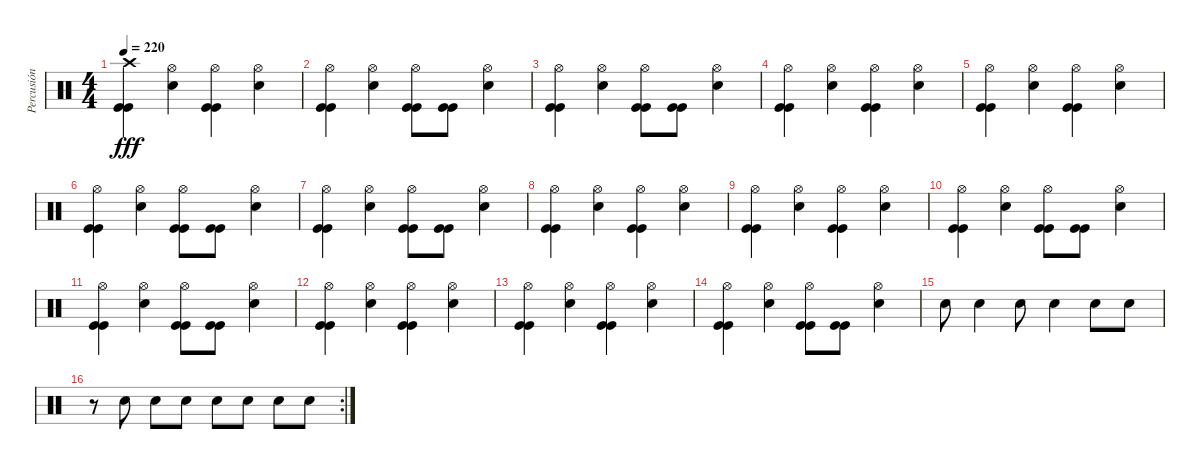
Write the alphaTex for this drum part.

\track ("Percusión" "Percusión") {instrument percussion}
\staff {score}
\articulation defaults
\ts (4 4)
\tempo 220
\clef neutral
\ks c
("Crash high (hit)" "Kick (hit)" "Kick (hit)").4{dy fff} ("Hi-Hat (open)" "Snare (hit) 2").4 ("Hi-Hat (open)" "Kick (hit)" "Kick (hit)").4 ("Hi-Hat (open)" "Snare (hit) 2").4 |
("Hi-Hat (open)" "Kick (hit)" "Kick (hit)").4 ("Hi-Hat (open)" "Snare (hit) 2").4 ("Hi-Hat (open)" "Kick (hit)" "Kick (hit)").8 ("Kick (hit)" "Kick (hit)").8 ("Hi-Hat (open)" "Snare (hit) 2").4 |
("Hi-Hat (open)" "Kick (hit)" "Kick (hit)").4 ("Hi-Hat (open)" "Snare (hit) 2").4 ("Hi-Hat (open)" "Kick (hit)" "Kick (hit)").8 ("Kick (hit)" "Kick (hit)").8 ("Hi-Hat (open)" "Snare (hit) 2").4 |
("Hi-Hat (open)" "Kick (hit)" "Kick (hit)").4 ("Hi-Hat (open)" "Snare (hit) 2").4 ("Hi-Hat (open)" "Kick (hit)" "Kick (hit)").4 ("Hi-Hat (open)" "Snare (hit) 2").4 |
("Hi-Hat (open)" "Kick (hit)" "Kick (hit)").4 ("Hi-Hat (open)" "Snare (hit) 2").4 ("Hi-Hat (open)" "Kick (hit)" "Kick (hit)").4 ("Hi-Hat (open)" "Snare (hit) 2").4 |
("Hi-Hat (open)" "Kick (hit)" "Kick (hit)").4 ("Hi-Hat (open)" "Snare (hit) 2").4 ("Hi-Hat (open)" "Kick (hit)" "Kick (hit)").8 ("Kick (hit)" "Kick (hit)").8 ("Hi-Hat (open)" "Snare (hit) 2").4 |
("Hi-Hat (open)" "Kick (hit)" "Kick (hit)").4 ("Hi-Hat (open)" "Snare (hit) 2").4 ("Hi-Hat (open)" "Kick (hit)" "Kick (hit)").8 ("Kick (hit)" "Kick (hit)").8 ("Hi-Hat (open)" "Snare (hit) 2").4 |
("Hi-Hat (open)" "Kick (hit)" "Kick (hit)").4 ("Hi-Hat (open)" "Snare (hit) 2").4 ("Hi-Hat (open)" "Kick (hit)" "Kick (hit)").4 ("Hi-Hat (open)" "Snare (hit) 2").4 |
("Hi-Hat (open)" "Kick (hit)" "Kick (hit)").4 ("Hi-Hat (open)" "Snare (hit) 2").4 ("Hi-Hat (open)" "Kick (hit)" "Kick (hit)").4 ("Hi-Hat (open)" "Snare (hit) 2").4 |
("Hi-Hat (open)" "Kick (hit)" "Kick (hit)").4 ("Hi-Hat (open)" "Snare (hit) 2").4 ("Hi-Hat (open)" "Kick (hit)" "Kick (hit)").8 ("Kick (hit)" "Kick (hit)").8 ("Hi-Hat (open)" "Snare (hit) 2").4 |
("Hi-Hat (open)" "Kick (hit)" "Kick (hit)").4 ("Hi-Hat (open)" "Snare (hit) 2").4 ("Hi-Hat (open)" "Kick (hit)" "Kick (hit)").8 ("Kick (hit)" "Kick (hit)").8 ("Hi-Hat (open)" "Snare (hit) 2").4 |
("Hi-Hat (open)" "Kick (hit)" "Kick (hit)").4 ("Hi-Hat (open)" "Snare (hit) 2").4 ("Hi-Hat (open)" "Kick (hit)" "Kick (hit)").4 ("Hi-Hat (open)" "Snare (hit) 2").4 |
("Hi-Hat (open)" "Kick (hit)" "Kick (hit)").4 ("Hi-Hat (open)" "Snare (hit) 2").4 ("Hi-Hat (open)" "Kick (hit)" "Kick (hit)").4 ("Hi-Hat (open)" "Snare (hit) 2").4 |
("Hi-Hat (open)" "Kick (hit)" "Kick (hit)").4 ("Hi-Hat (open)" "Snare (hit) 2").4 ("Hi-Hat (open)" "Kick (hit)" "Kick (hit)").8 ("Kick (hit)" "Kick (hit)").8 ("Hi-Hat (open)" "Snare (hit) 2").4 |
"Snare (hit) 2".8 "Snare (hit) 2".4 "Snare (hit) 2".8 "Snare (hit) 2".4 "Snare (hit) 2".8 "Snare (hit) 2".8 |
\rc 2
r.8 "Snare (hit) 2".8 "Snare (hit) 2".8 "Snare (hit) 2".8 "Snare (hit) 2".8 "Snare (hit) 2".8 "Snare (hit) 2".8 "Snare (hit) 2".8
